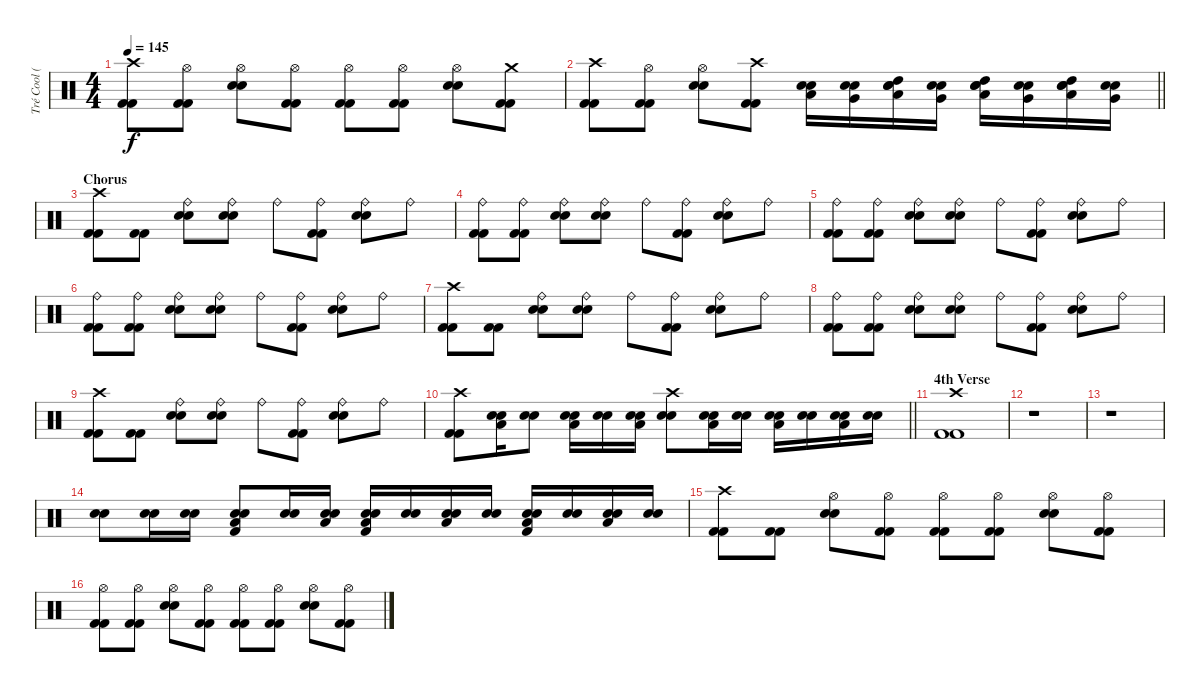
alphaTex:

\track ("Tré Cool (Drums)" "Tré Cool (") {instrument percussion}
\staff {score}
\articulation defaults
\ts (4 4)
\tempo 145
\clef neutral
\ks c
("Kick (hit) 2" "Kick (hit) 2" "Crash high (hit)").8{dy f} ("Kick (hit) 2" "Kick (hit) 2" "Hi-Hat (open)").8 ("Snare (hit) 2" "Snare (hit) 2" "Hi-Hat (open)").8 ("Kick (hit) 2" "Kick (hit) 2" "Hi-Hat (open)").8 ("Kick (hit) 2" "Kick (hit) 2" "Hi-Hat (open)").8 ("Kick (hit) 2" "Kick (hit) 2" "Hi-Hat (open)").8 ("Snare (hit) 2" "Snare (hit) 2" "Hi-Hat (open)").8 ("Kick (hit) 2" "Kick (hit) 2" "Crash medium (hit)").8 |
\barLineRight lightlight
("Kick (hit) 2" "Kick (hit) 2" "Crash high (hit)").8 ("Kick (hit) 2" "Kick (hit) 2" "Hi-Hat (open)").8 ("Snare (hit) 2" "Snare (hit) 2" "Hi-Hat (open)").8 ("Kick (hit) 2" "Kick (hit) 2" "Crash high (hit)").8 ("Electric Snare (hit)" "Electric Snare (hit)" "Low Floor Tom (hit)").16 ("Snare (hit) 2" "Snare (hit) 2" "Very Low Tom (hit)").16 ("Electric Snare (hit)" "Electric Snare (hit)" "Low Floor Tom (hit)" "High Tom (hit)").16 ("Snare (hit) 2" "Snare (hit) 2" "Very Low Tom (hit)").16 ("Electric Snare (hit)" "Electric Snare (hit)" "Low Floor Tom (hit)" "High Tom (hit)").16 ("Snare (hit) 2" "Snare (hit) 2" "Very Low Tom (hit)").16 ("Electric Snare (hit)" "Electric Snare (hit)" "Low Floor Tom (hit)" "High Tom (hit)").16 ("Snare (hit) 2" "Snare (hit) 2" "Very Low Tom (hit)").16 |
\section ("" "Chorus")
("Kick (hit) 2" "Kick (hit) 2" "Crash high (hit)").8 ("Kick (hit) 2" "Kick (hit) 2").8 ("Snare (hit) 2" "Snare (hit) 2" "Ride (bell)").8 ("Snare (hit) 2" "Snare (hit) 2" "Ride (bell)").8 "Ride (bell)".8 ("Kick (hit) 2" "Kick (hit) 2" "Ride (bell)").8 ("Snare (hit) 2" "Snare (hit) 2" "Ride (bell)").8 "Ride (bell)".8 |
("Kick (hit) 2" "Kick (hit) 2" "Ride (bell)").8 ("Kick (hit) 2" "Kick (hit) 2" "Ride (bell)").8 ("Snare (hit) 2" "Snare (hit) 2" "Ride (bell)").8 ("Snare (hit) 2" "Snare (hit) 2" "Ride (bell)").8 "Ride (bell)".8 ("Kick (hit) 2" "Kick (hit) 2" "Ride (bell)").8 ("Snare (hit) 2" "Snare (hit) 2" "Ride (bell)").8 "Ride (bell)".8 |
("Kick (hit) 2" "Kick (hit) 2" "Ride (bell)").8 ("Kick (hit) 2" "Kick (hit) 2" "Ride (bell)").8 ("Snare (hit) 2" "Snare (hit) 2" "Ride (bell)").8 ("Snare (hit) 2" "Snare (hit) 2" "Ride (bell)").8 "Ride (bell)".8 ("Kick (hit) 2" "Kick (hit) 2" "Ride (bell)").8 ("Snare (hit) 2" "Snare (hit) 2" "Ride (bell)").8 "Ride (bell)".8 |
("Kick (hit) 2" "Kick (hit) 2" "Ride (bell)").8 ("Kick (hit) 2" "Kick (hit) 2" "Ride (bell)").8 ("Snare (hit) 2" "Snare (hit) 2" "Ride (bell)").8 ("Snare (hit) 2" "Snare (hit) 2" "Ride (bell)").8 "Ride (bell)".8 ("Kick (hit) 2" "Kick (hit) 2" "Ride (bell)").8 ("Snare (hit) 2" "Snare (hit) 2" "Ride (bell)").8 "Ride (bell)".8 |
("Kick (hit) 2" "Kick (hit) 2" "Crash high (hit)").8 ("Kick (hit) 2" "Kick (hit) 2").8 ("Snare (hit) 2" "Snare (hit) 2" "Ride (bell)").8 ("Snare (hit) 2" "Snare (hit) 2" "Ride (bell)").8 "Ride (bell)".8 ("Kick (hit) 2" "Kick (hit) 2" "Ride (bell)").8 ("Snare (hit) 2" "Snare (hit) 2" "Ride (bell)").8 "Ride (bell)".8 |
("Kick (hit) 2" "Kick (hit) 2" "Ride (bell)").8 ("Kick (hit) 2" "Kick (hit) 2" "Ride (bell)").8 ("Snare (hit) 2" "Snare (hit) 2" "Ride (bell)").8 ("Snare (hit) 2" "Snare (hit) 2" "Ride (bell)").8 "Ride (bell)".8 ("Kick (hit) 2" "Kick (hit) 2" "Ride (bell)").8 ("Snare (hit) 2" "Snare (hit) 2" "Ride (bell)").8 "Ride (bell)".8 |
("Kick (hit) 2" "Kick (hit) 2" "Crash high (hit)").8 ("Kick (hit) 2" "Kick (hit) 2").8 ("Snare (hit) 2" "Snare (hit) 2" "Ride (bell)").8 ("Snare (hit) 2" "Snare (hit) 2" "Ride (bell)").8 "Ride (bell)".8 ("Kick (hit) 2" "Kick (hit) 2" "Ride (bell)").8 ("Snare (hit) 2" "Snare (hit) 2" "Ride (bell)").8 "Ride (bell)".8 |
\barLineRight lightlight
("Kick (hit) 2" "Kick (hit) 2" "Crash high (hit)").8 ("Electric Snare (hit)" "Electric Snare (hit)" "Low Floor Tom (hit)").16 ("Snare (hit) 2" "Snare (hit) 2").8 ("Electric Snare (hit)" "Electric Snare (hit)" "Low Floor Tom (hit)").16 ("Snare (hit) 2" "Snare (hit) 2").16 ("Electric Snare (hit)" "Electric Snare (hit)" "Low Floor Tom (hit)").16 ("Snare (hit) 2" "Snare (hit) 2" "Crash high (hit)").8 ("Electric Snare (hit)" "Electric Snare (hit)" "Low Floor Tom (hit)").16 ("Snare (hit) 2" "Snare (hit) 2").16 ("Electric Snare (hit)" "Electric Snare (hit)" "Low Floor Tom (hit)").16 ("Snare (hit) 2" "Snare (hit) 2").16 ("Electric Snare (hit)" "Electric Snare (hit)" "Low Floor Tom (hit)").16 ("Snare (hit) 2" "Snare (hit) 2").16 |
\section ("" "4th Verse")
("Kick (hit) 2" "Kick (hit) 2" "Crash high (hit)").1 |
r.1 |
r.1 |
("Snare (hit) 2" "Snare (hit) 2").8 ("Snare (hit) 2" "Snare (hit) 2").16 ("Snare (hit) 2" "Snare (hit) 2").16 ("Electric Snare (hit)" "Electric Snare (hit)" "Low Floor Tom (hit)" "Kick (hit) 2").8 ("Snare (hit) 2" "Snare (hit) 2").16 ("Electric Snare (hit)" "Electric Snare (hit)" "Low Floor Tom (hit)").16 ("Electric Snare (hit)" "Electric Snare (hit)" "Low Floor Tom (hit)" "Kick (hit) 2").16 ("Snare (hit) 2" "Snare (hit) 2").16 ("Electric Snare (hit)" "Electric Snare (hit)" "Low Floor Tom (hit)").16 ("Snare (hit) 2" "Snare (hit) 2").16 ("Electric Snare (hit)" "Electric Snare (hit)" "Low Floor Tom (hit)" "Kick (hit) 2").16 ("Snare (hit) 2" "Snare (hit) 2").16 ("Electric Snare (hit)" "Electric Snare (hit)" "Low Floor Tom (hit)").16 ("Snare (hit) 2" "Snare (hit) 2").16 |
("Kick (hit) 2" "Kick (hit) 2" "Crash high (hit)").8 ("Kick (hit) 2" "Kick (hit) 2").8 ("Snare (hit) 2" "Snare (hit) 2" "Hi-Hat (open)").8 ("Kick (hit) 2" "Kick (hit) 2" "Hi-Hat (open)").8 ("Kick (hit) 2" "Kick (hit) 2" "Hi-Hat (open)").8 ("Kick (hit) 2" "Kick (hit) 2" "Hi-Hat (open)").8 ("Snare (hit) 2" "Snare (hit) 2" "Hi-Hat (open)").8 ("Kick (hit) 2" "Kick (hit) 2" "Hi-Hat (open)").8 |
("Kick (hit) 2" "Kick (hit) 2" "Hi-Hat (open)").8 ("Kick (hit) 2" "Kick (hit) 2" "Hi-Hat (open)").8 ("Snare (hit) 2" "Snare (hit) 2" "Hi-Hat (open)").8 ("Kick (hit) 2" "Kick (hit) 2" "Hi-Hat (open)").8 ("Kick (hit) 2" "Kick (hit) 2" "Hi-Hat (open)").8 ("Kick (hit) 2" "Kick (hit) 2" "Hi-Hat (open)").8 ("Snare (hit) 2" "Snare (hit) 2" "Hi-Hat (open)").8 ("Kick (hit) 2" "Kick (hit) 2" "Hi-Hat (open)").8
